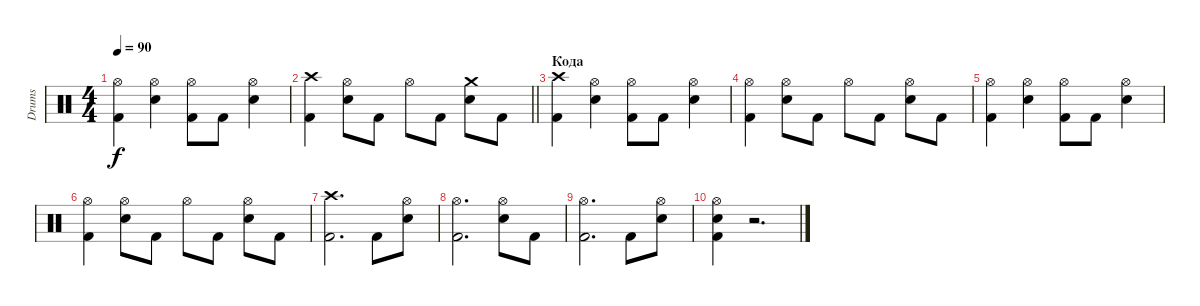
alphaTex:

\track ("Drums" "Drums") {instrument percussion}
\staff {score}
\articulation defaults
\ts (4 4)
\tempo 90
\clef neutral
\ks c
("Hi-Hat (open)" "Kick (hit) 2").4{dy f} ("Hi-Hat (open)" "Electric Snare (hit)").4 ("Hi-Hat (open)" "Kick (hit) 2").8 "Kick (hit) 2".8 ("Hi-Hat (open)" "Electric Snare (hit)").4 |
\barLineRight lightlight
("Crash high (hit)" "Kick (hit) 2").4 ("Hi-Hat (open)" "Electric Snare (hit)").8 "Kick (hit) 2".8 "Hi-Hat (open)".8 "Kick (hit) 2".8 ("Crash medium (hit)" "Electric Snare (hit)").8 "Kick (hit) 2".8 |
\section ("" "Кода")
("Crash high (hit)" "Kick (hit) 2").4 ("Hi-Hat (open)" "Electric Snare (hit)").4 ("Hi-Hat (open)" "Kick (hit) 2").8 "Kick (hit) 2".8 ("Hi-Hat (open)" "Electric Snare (hit)").4 |
("Hi-Hat (open)" "Kick (hit) 2").4 ("Hi-Hat (open)" "Electric Snare (hit)").8 "Kick (hit) 2".8 "Hi-Hat (open)".8 "Kick (hit) 2".8 ("Hi-Hat (open)" "Electric Snare (hit)").8 "Kick (hit) 2".8 |
("Hi-Hat (open)" "Kick (hit) 2").4 ("Hi-Hat (open)" "Electric Snare (hit)").4 ("Hi-Hat (open)" "Kick (hit) 2").8 "Kick (hit) 2".8 ("Hi-Hat (open)" "Electric Snare (hit)").4 |
("Hi-Hat (open)" "Kick (hit) 2").4 ("Hi-Hat (open)" "Electric Snare (hit)").8 "Kick (hit) 2".8 "Hi-Hat (open)".8 "Kick (hit) 2".8 ("Hi-Hat (open)" "Electric Snare (hit)").8 "Kick (hit) 2".8 |
("Crash high (hit)" "Kick (hit) 2").2{d} "Kick (hit) 2".8 ("Hi-Hat (open)" "Electric Snare (hit)").8 |
("Hi-Hat (open)" "Kick (hit) 2").2{d} ("Hi-Hat (open)" "Electric Snare (hit)").8 "Kick (hit) 2".8 |
("Hi-Hat (open)" "Kick (hit) 2").2{d} "Kick (hit) 2".8 ("Hi-Hat (open)" "Electric Snare (hit)").8 |
("Hi-Hat (open)" "Electric Snare (hit)" "Kick (hit) 2").4 r.2{d}
